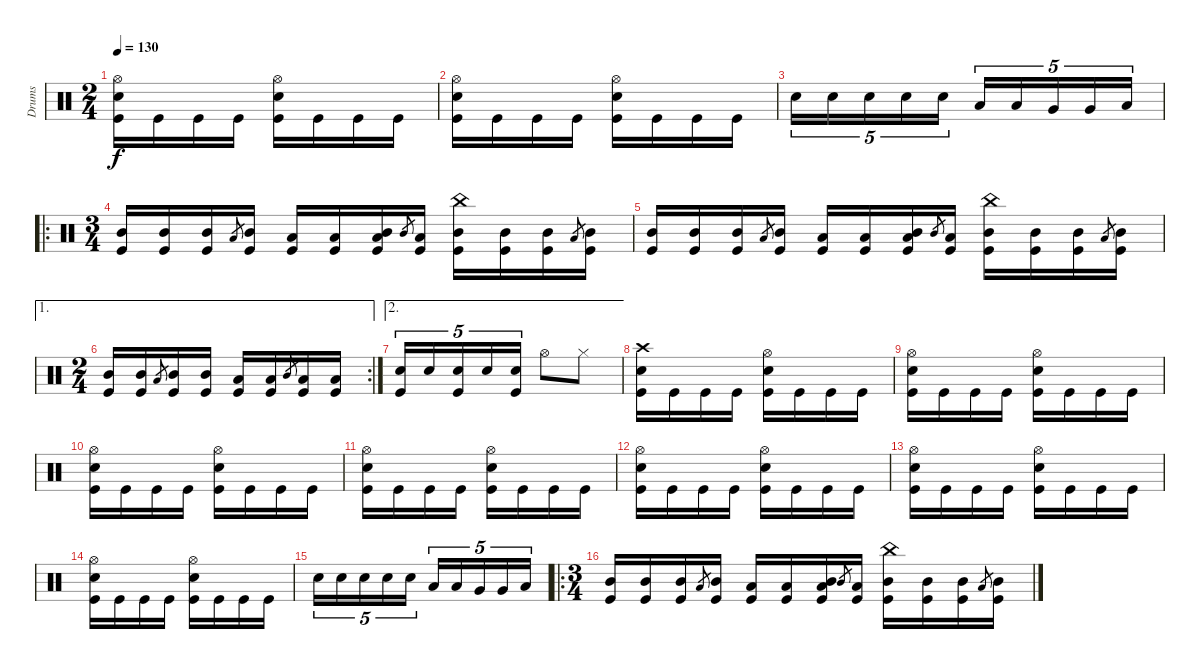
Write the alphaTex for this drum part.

\track ("Drums" "Drums") {instrument percussion}
\staff {score}
\articulation defaults
\ts (2 4)
\tempo 130
\clef neutral
\ks c
("Hi-Hat (open)" "Electric Snare (hit)" "Kick (hit)").16{dy f} "Kick (hit)".16 "Kick (hit)".16 "Kick (hit)".16 ("Hi-Hat (open)" "Electric Snare (hit)" "Kick (hit)").16 "Kick (hit)".16 "Kick (hit)".16 "Kick (hit)".16 |
("Hi-Hat (open)" "Electric Snare (hit)" "Kick (hit)").16 "Kick (hit)".16 "Kick (hit)".16 "Kick (hit)".16 ("Hi-Hat (open)" "Electric Snare (hit)" "Kick (hit)").16 "Kick (hit)".16 "Kick (hit)".16 "Kick (hit)".16 |
"Electric Snare (hit)".16{tu (5 4)} "Electric Snare (hit)".16{tu (5 4)} "Electric Snare (hit)".16{tu (5 4)} "Electric Snare (hit)".16{tu (5 4)} "Electric Snare (hit)".16{tu (5 4)} "Low Tom (hit)".16{tu (5 4)} "Low Tom (hit)".16{tu (5 4)} "Very Low Tom (hit)".16{tu (5 4)} "Very Low Tom (hit)".16{tu (5 4)} "Low Floor Tom (hit)".16{tu (5 4)} |
\ro
\ts (3 4)
("Mid Tom (hit)" "Kick (hit)").16 ("Mid Tom (hit)" "Kick (hit)").16 ("Mid Tom (hit)" "Kick (hit)").16 "Low Tom (hit)".8{gr} ("Mid Tom (hit)" "Kick (hit)").16 ("Low Tom (hit)" "Kick (hit)").16 ("Low Tom (hit)" "Kick (hit)").16 ("Mid Tom (hit)" "Low Tom (hit)" "Kick (hit)").16 "Mid Tom (hit)".8{gr} ("Low Tom (hit)" "Kick (hit)").16 ("China (hit)" "Mid Tom (hit)" "Kick (hit)").16 ("Mid Tom (hit)" "Kick (hit)").16 ("Mid Tom (hit)" "Kick (hit)").16 "Low Tom (hit)".8{gr} ("Mid Tom (hit)" "Kick (hit)").16 |
("Mid Tom (hit)" "Kick (hit)").16 ("Mid Tom (hit)" "Kick (hit)").16 ("Mid Tom (hit)" "Kick (hit)").16 "Low Tom (hit)".8{gr} ("Mid Tom (hit)" "Kick (hit)").16 ("Low Tom (hit)" "Kick (hit)").16 ("Low Tom (hit)" "Kick (hit)").16 ("Mid Tom (hit)" "Low Tom (hit)" "Kick (hit)").16 "Mid Tom (hit)".8{gr} ("Low Tom (hit)" "Kick (hit)").16 ("China (hit)" "Mid Tom (hit)" "Kick (hit)").16 ("Mid Tom (hit)" "Kick (hit)").16 ("Mid Tom (hit)" "Kick (hit)").16 "Low Tom (hit)".8{gr} ("Mid Tom (hit)" "Kick (hit)").16 |
\ae 1
\rc 2
\ts (2 4)
("Mid Tom (hit)" "Kick (hit)").16 ("Mid Tom (hit)" "Kick (hit)").16 "Low Tom (hit)".8{gr} ("Mid Tom (hit)" "Kick (hit)").16 ("Mid Tom (hit)" "Kick (hit)").16 ("Low Tom (hit)" "Kick (hit)").16 ("Low Tom (hit)" "Kick (hit)").16 "Mid Tom (hit)".8{gr} ("Low Tom (hit)" "Kick (hit)").16 ("Low Tom (hit)" "Kick (hit)").16 |
\ae 2
("Electric Snare (hit)" "Kick (hit)").16{tu (5 4)} "Electric Snare (hit)".16{tu (5 4)} ("Electric Snare (hit)" "Kick (hit)").16{tu (5 4)} "Electric Snare (hit)".16{tu (5 4)} ("Electric Snare (hit)" "Kick (hit)").16{tu (5 4)} "Hi-Hat (open)".8 "Hi-Hat (closed)".8 |
("Crash high (hit)" "Electric Snare (hit)" "Kick (hit)").16 "Kick (hit)".16 "Kick (hit)".16 "Kick (hit)".16 ("Hi-Hat (open)" "Electric Snare (hit)" "Kick (hit)").16 "Kick (hit)".16 "Kick (hit)".16 "Kick (hit)".16 |
("Hi-Hat (open)" "Electric Snare (hit)" "Kick (hit)").16 "Kick (hit)".16 "Kick (hit)".16 "Kick (hit)".16 ("Hi-Hat (open)" "Electric Snare (hit)" "Kick (hit)").16 "Kick (hit)".16 "Kick (hit)".16 "Kick (hit)".16 |
("Hi-Hat (open)" "Electric Snare (hit)" "Kick (hit)").16 "Kick (hit)".16 "Kick (hit)".16 "Kick (hit)".16 ("Hi-Hat (open)" "Electric Snare (hit)" "Kick (hit)").16 "Kick (hit)".16 "Kick (hit)".16 "Kick (hit)".16 |
("Hi-Hat (open)" "Electric Snare (hit)" "Kick (hit)").16 "Kick (hit)".16 "Kick (hit)".16 "Kick (hit)".16 ("Hi-Hat (open)" "Electric Snare (hit)" "Kick (hit)").16 "Kick (hit)".16 "Kick (hit)".16 "Kick (hit)".16 |
("Hi-Hat (open)" "Electric Snare (hit)" "Kick (hit)").16 "Kick (hit)".16 "Kick (hit)".16 "Kick (hit)".16 ("Hi-Hat (open)" "Electric Snare (hit)" "Kick (hit)").16 "Kick (hit)".16 "Kick (hit)".16 "Kick (hit)".16 |
("Hi-Hat (open)" "Electric Snare (hit)" "Kick (hit)").16 "Kick (hit)".16 "Kick (hit)".16 "Kick (hit)".16 ("Hi-Hat (open)" "Electric Snare (hit)" "Kick (hit)").16 "Kick (hit)".16 "Kick (hit)".16 "Kick (hit)".16 |
("Hi-Hat (open)" "Electric Snare (hit)" "Kick (hit)").16 "Kick (hit)".16 "Kick (hit)".16 "Kick (hit)".16 ("Hi-Hat (open)" "Electric Snare (hit)" "Kick (hit)").16 "Kick (hit)".16 "Kick (hit)".16 "Kick (hit)".16 |
"Electric Snare (hit)".16{tu (5 4)} "Electric Snare (hit)".16{tu (5 4)} "Electric Snare (hit)".16{tu (5 4)} "Electric Snare (hit)".16{tu (5 4)} "Electric Snare (hit)".16{tu (5 4)} "Low Tom (hit)".16{tu (5 4)} "Low Tom (hit)".16{tu (5 4)} "Very Low Tom (hit)".16{tu (5 4)} "Very Low Tom (hit)".16{tu (5 4)} "Low Floor Tom (hit)".16{tu (5 4)} |
\ro
\ts (3 4)
("Mid Tom (hit)" "Kick (hit)").16 ("Mid Tom (hit)" "Kick (hit)").16 ("Mid Tom (hit)" "Kick (hit)").16 "Low Tom (hit)".8{gr} ("Mid Tom (hit)" "Kick (hit)").16 ("Low Tom (hit)" "Kick (hit)").16 ("Low Tom (hit)" "Kick (hit)").16 ("Mid Tom (hit)" "Low Tom (hit)" "Kick (hit)").16 "Mid Tom (hit)".8{gr} ("Low Tom (hit)" "Kick (hit)").16 ("China (hit)" "Mid Tom (hit)" "Kick (hit)").16 ("Mid Tom (hit)" "Kick (hit)").16 ("Mid Tom (hit)" "Kick (hit)").16 "Low Tom (hit)".8{gr} ("Mid Tom (hit)" "Kick (hit)").16
